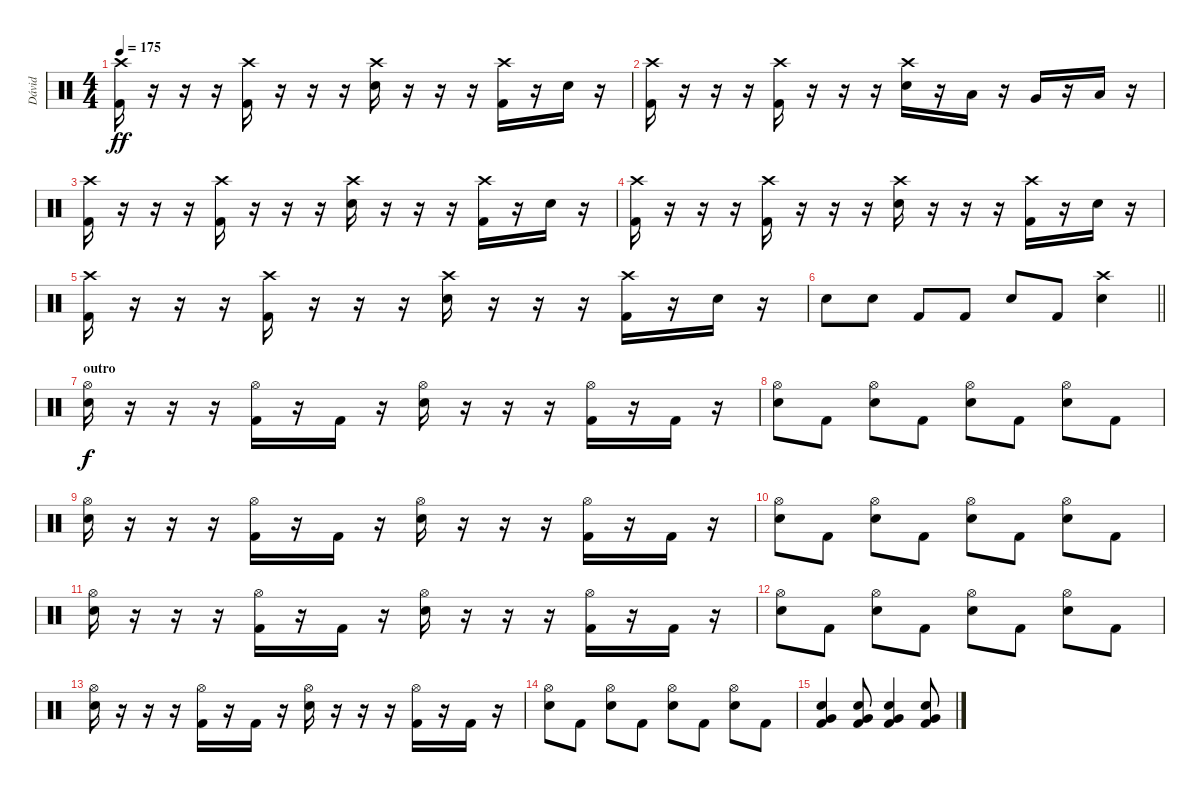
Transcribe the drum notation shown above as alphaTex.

\track ("Dávid" "Dávid") {instrument percussion}
\staff {score}
\articulation defaults
\ts (4 4)
\tempo 175
\clef neutral
\ks c
("Crash high (hit)" "Kick (hit) 2").16{dy ff} r.16 r.16 r.16 ("Crash high (hit)" "Kick (hit) 2").16 r.16 r.16 r.16 ("Crash high (hit)" "Electric Snare (hit)").16 r.16 r.16 r.16 ("Crash high (hit)" "Kick (hit) 2").16 r.16 "Electric Snare (hit)".16 r.16 |
("Crash high (hit)" "Kick (hit) 2").16 r.16 r.16 r.16 ("Crash high (hit)" "Kick (hit) 2").16 r.16 r.16 r.16 ("Crash high (hit)" "Electric Snare (hit)").16 r.16 "Low Tom (hit)".16 r.16 "Very Low Tom (hit)".16 r.16 "Low Floor Tom (hit)".16 r.16 |
("Crash high (hit)" "Kick (hit) 2").16 r.16 r.16 r.16 ("Crash high (hit)" "Kick (hit) 2").16 r.16 r.16 r.16 ("Crash high (hit)" "Electric Snare (hit)").16 r.16 r.16 r.16 ("Crash high (hit)" "Kick (hit) 2").16 r.16 "Electric Snare (hit)".16 r.16 |
("Crash high (hit)" "Kick (hit) 2").16 r.16 r.16 r.16 ("Crash high (hit)" "Kick (hit) 2").16 r.16 r.16 r.16 ("Crash high (hit)" "Electric Snare (hit)").16 r.16 r.16 r.16 ("Crash high (hit)" "Kick (hit) 2").16 r.16 "Electric Snare (hit)".16 r.16 |
("Crash high (hit)" "Kick (hit) 2").16 r.16 r.16 r.16 ("Crash high (hit)" "Kick (hit) 2").16 r.16 r.16 r.16 ("Crash high (hit)" "Electric Snare (hit)").16 r.16 r.16 r.16 ("Crash high (hit)" "Kick (hit) 2").16 r.16 "Electric Snare (hit)".16 r.16 |
\barLineRight lightlight "Electric Snare (hit)".8 "Electric Snare (hit)".8 "Kick (hit) 2".8 "Kick (hit) 2".8 "Electric Snare (hit)".8 "Kick (hit) 2".8
("Crash high (hit)" "Electric Snare (hit)").4 |
\section ("" "outro")
("Hi-Hat (open)" "Electric Snare (hit)").16{dy f} r.16 r.16 r.16 ("Hi-Hat (open)" "Kick (hit) 2").16 r.16 "Kick (hit) 2".16 r.16 ("Hi-Hat (open)" "Electric Snare (hit)").16 r.16 r.16 r.16 ("Hi-Hat (open)" "Kick (hit) 2").16 r.16 "Kick (hit) 2".16 r.16 |
("Hi-Hat (open)" "Electric Snare (hit)").8 "Kick (hit) 2".8 ("Hi-Hat (open)" "Electric Snare (hit)").8 "Kick (hit) 2".8 ("Hi-Hat (open)" "Electric Snare (hit)").8 "Kick (hit) 2".8 ("Hi-Hat (open)" "Electric Snare (hit)").8 "Kick (hit) 2".8 |
("Hi-Hat (open)" "Electric Snare (hit)").16 r.16 r.16 r.16 ("Hi-Hat (open)" "Kick (hit) 2").16 r.16 "Kick (hit) 2".16 r.16 ("Hi-Hat (open)" "Electric Snare (hit)").16 r.16 r.16 r.16 ("Hi-Hat (open)" "Kick (hit) 2").16 r.16 "Kick (hit) 2".16 r.16 |
("Hi-Hat (open)" "Electric Snare (hit)").8 "Kick (hit) 2".8 ("Hi-Hat (open)" "Electric Snare (hit)").8 "Kick (hit) 2".8 ("Hi-Hat (open)" "Electric Snare (hit)").8 "Kick (hit) 2".8 ("Hi-Hat (open)" "Electric Snare (hit)").8 "Kick (hit) 2".8 |
("Hi-Hat (open)" "Electric Snare (hit)").16 r.16 r.16 r.16 ("Hi-Hat (open)" "Kick (hit) 2").16 r.16 "Kick (hit) 2".16 r.16 ("Hi-Hat (open)" "Electric Snare (hit)").16 r.16 r.16 r.16 ("Hi-Hat (open)" "Kick (hit) 2").16 r.16 "Kick (hit) 2".16 r.16 |
("Hi-Hat (open)" "Electric Snare (hit)").8 "Kick (hit) 2".8 ("Hi-Hat (open)" "Electric Snare (hit)").8 "Kick (hit) 2".8 ("Hi-Hat (open)" "Electric Snare (hit)").8 "Kick (hit) 2".8 ("Hi-Hat (open)" "Electric Snare (hit)").8 "Kick (hit) 2".8 |
("Hi-Hat (open)" "Electric Snare (hit)").16 r.16 r.16 r.16 ("Hi-Hat (open)" "Kick (hit) 2").16 r.16 "Kick (hit) 2".16 r.16 ("Hi-Hat (open)" "Electric Snare (hit)").16 r.16 r.16 r.16 ("Hi-Hat (open)" "Kick (hit) 2").16 r.16 "Kick (hit) 2".16 r.16 |
("Hi-Hat (open)" "Electric Snare (hit)").8 "Kick (hit) 2".8 ("Hi-Hat (open)" "Electric Snare (hit)").8 "Kick (hit) 2".8 ("Hi-Hat (open)" "Electric Snare (hit)").8 "Kick (hit) 2".8 ("Hi-Hat (open)" "Electric Snare (hit)").8 "Kick (hit) 2".8 |
("Very Low Tom (hit)" "Electric Snare (hit)" "Kick (hit) 2").4 ("Very Low Tom (hit)" "Electric Snare (hit)" "Kick (hit) 2").8 ("Very Low Tom (hit)" "Electric Snare (hit)" "Kick (hit) 2").4 ("Very Low Tom (hit)" "Electric Snare (hit)" "Kick (hit) 2").8
